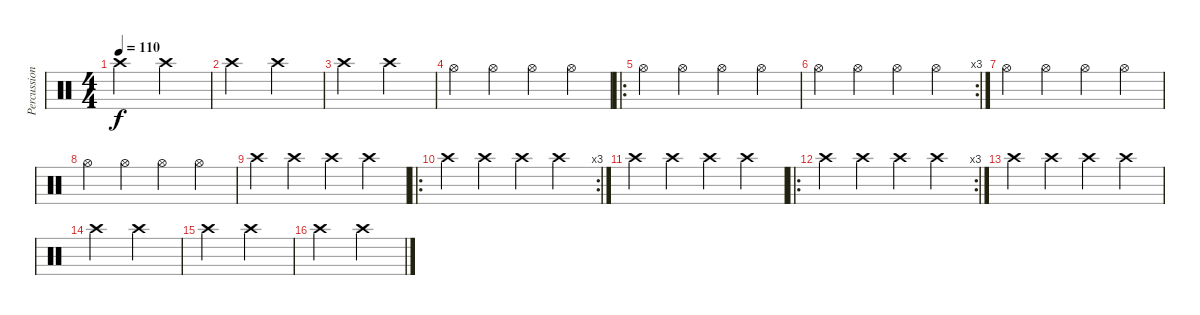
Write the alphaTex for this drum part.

\track ("Percussions" "Percussion") {instrument percussion}
\staff {score}
\articulation defaults
\ts (4 4)
\tempo 110
\clef neutral
\ks c "Crash high (hit)".2{dy f} "Crash high (hit)".2
|
"Crash high (hit)".2 "Crash high (hit)".2 |
"Crash high (hit)".2 "Crash high (hit)".2 |
"Hi-Hat (open)".4 "Hi-Hat (open)".4 "Hi-Hat (open)".4 "Hi-Hat (open)".4 |
\ro "Hi-Hat (open)".4 "Hi-Hat (open)".4 "Hi-Hat (open)".4 "Hi-Hat (open)".4
|
\rc 3 "Hi-Hat (open)".4 "Hi-Hat (open)".4 "Hi-Hat (open)".4 "Hi-Hat (open)".4
|
"Hi-Hat (open)".4 "Hi-Hat (open)".4 "Hi-Hat (open)".4 "Hi-Hat (open)".4 |
"Hi-Hat (open)".4 "Hi-Hat (open)".4 "Hi-Hat (open)".4 "Hi-Hat (open)".4 |
"Crash high (hit)".4 "Crash high (hit)".4 "Crash high (hit)".4 "Crash high (hit)".4 |
\ro
\rc 3 "Crash high (hit)".4 "Crash high (hit)".4 "Crash high (hit)".4 "Crash high (hit)".4
|
"Crash high (hit)".4 "Crash high (hit)".4 "Crash high (hit)".4 "Crash high (hit)".4 |
\ro
\rc 3 "Crash high (hit)".4 "Crash high (hit)".4 "Crash high (hit)".4 "Crash high (hit)".4
|
"Crash high (hit)".4 "Crash high (hit)".4 "Crash high (hit)".4 "Crash high (hit)".4 |
"Crash high (hit)".2 "Crash high (hit)".2 |
"Crash high (hit)".2 "Crash high (hit)".2 |
"Crash high (hit)".2 "Crash high (hit)".2
